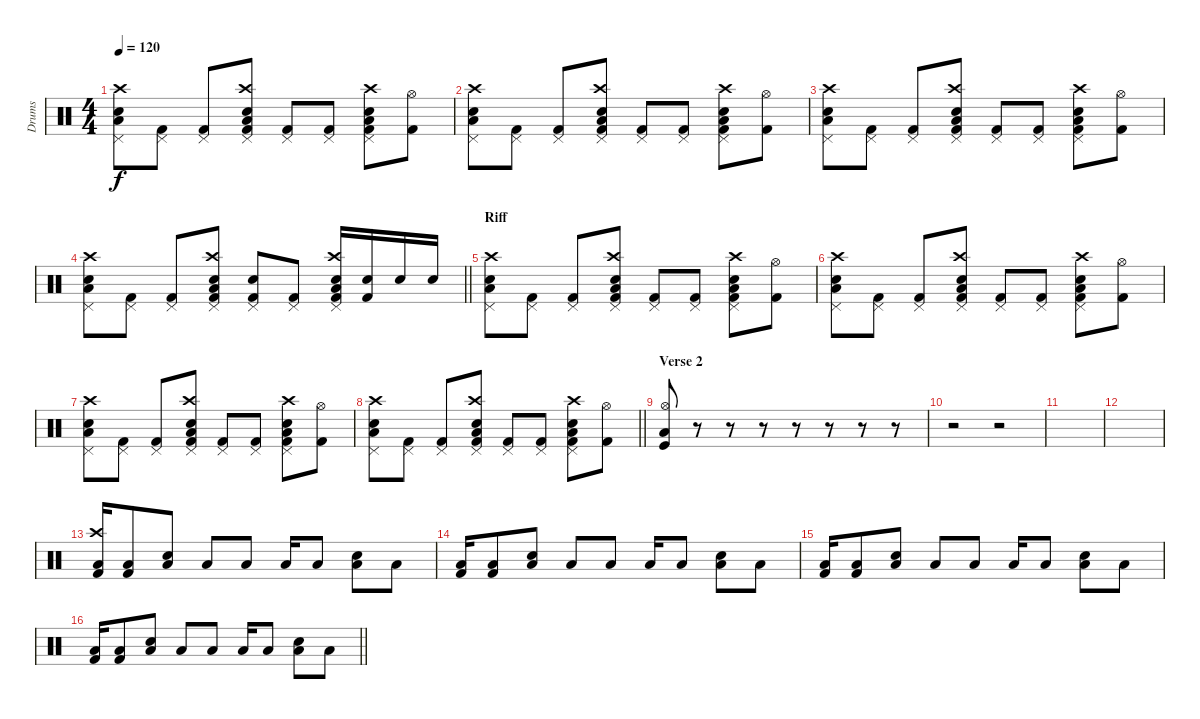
\track ("Drums" "Drums") {instrument percussion}
\staff {score}
\articulation defaults
\ts (4 4)
\tempo 120
\clef neutral
\ks c
("Electric Snare (hit)" "Low Tom (hit)" "Pedal Hi-Hat (hit)" "Crash high (hit)").8{dy f} ("Kick (hit) 2" "Pedal Hi-Hat (hit)").8 ("Kick (hit) 2" "Pedal Hi-Hat (hit)").8 ("Kick (hit) 2" "Electric Snare (hit)" "Low Tom (hit)" "Pedal Hi-Hat (hit)" "Crash high (hit)").8 ("Kick (hit) 2" "Pedal Hi-Hat (hit)").8 ("Kick (hit) 2" "Pedal Hi-Hat (hit)").8 ("Kick (hit) 2" "Electric Snare (hit)" "Low Tom (hit)" "Pedal Hi-Hat (hit)" "Crash high (hit)").8 ("Kick (hit) 2" "Hi-Hat (open)").8 |
("Electric Snare (hit)" "Low Tom (hit)" "Pedal Hi-Hat (hit)" "Crash high (hit)").8 ("Kick (hit) 2" "Pedal Hi-Hat (hit)").8 ("Kick (hit) 2" "Pedal Hi-Hat (hit)").8 ("Kick (hit) 2" "Electric Snare (hit)" "Low Tom (hit)" "Pedal Hi-Hat (hit)" "Crash high (hit)").8 ("Kick (hit) 2" "Pedal Hi-Hat (hit)").8 ("Kick (hit) 2" "Pedal Hi-Hat (hit)").8 ("Kick (hit) 2" "Electric Snare (hit)" "Low Tom (hit)" "Pedal Hi-Hat (hit)" "Crash high (hit)").8 ("Kick (hit) 2" "Hi-Hat (open)").8 |
("Electric Snare (hit)" "Low Tom (hit)" "Pedal Hi-Hat (hit)" "Crash high (hit)").8 ("Kick (hit) 2" "Pedal Hi-Hat (hit)").8 ("Kick (hit) 2" "Pedal Hi-Hat (hit)").8 ("Kick (hit) 2" "Electric Snare (hit)" "Low Tom (hit)" "Pedal Hi-Hat (hit)" "Crash high (hit)").8 ("Kick (hit) 2" "Pedal Hi-Hat (hit)").8 ("Kick (hit) 2" "Pedal Hi-Hat (hit)").8 ("Kick (hit) 2" "Electric Snare (hit)" "Low Tom (hit)" "Pedal Hi-Hat (hit)" "Crash high (hit)").8 ("Kick (hit) 2" "Hi-Hat (open)").8 |
\barLineRight lightlight
("Electric Snare (hit)" "Low Tom (hit)" "Pedal Hi-Hat (hit)" "Crash high (hit)").8 ("Kick (hit) 2" "Pedal Hi-Hat (hit)").8 ("Kick (hit) 2" "Pedal Hi-Hat (hit)").8 ("Kick (hit) 2" "Electric Snare (hit)" "Low Tom (hit)" "Pedal Hi-Hat (hit)" "Crash high (hit)").8 ("Kick (hit) 2" "Pedal Hi-Hat (hit)" "Electric Snare (hit)").8 ("Kick (hit) 2" "Pedal Hi-Hat (hit)").8 ("Kick (hit) 2" "Electric Snare (hit)" "Low Tom (hit)" "Pedal Hi-Hat (hit)" "Crash high (hit)").16 ("Kick (hit) 2" "Electric Snare (hit)").16 "Electric Snare (hit)".16 "Electric Snare (hit)".16 |
\section ("" "Riff")
("Electric Snare (hit)" "Low Tom (hit)" "Pedal Hi-Hat (hit)" "Crash high (hit)").8 ("Kick (hit) 2" "Pedal Hi-Hat (hit)").8 ("Kick (hit) 2" "Pedal Hi-Hat (hit)").8 ("Kick (hit) 2" "Electric Snare (hit)" "Low Tom (hit)" "Pedal Hi-Hat (hit)" "Crash high (hit)").8 ("Kick (hit) 2" "Pedal Hi-Hat (hit)").8 ("Kick (hit) 2" "Pedal Hi-Hat (hit)").8 ("Kick (hit) 2" "Electric Snare (hit)" "Low Tom (hit)" "Pedal Hi-Hat (hit)" "Crash high (hit)").8 ("Kick (hit) 2" "Hi-Hat (open)").8 |
("Electric Snare (hit)" "Low Tom (hit)" "Pedal Hi-Hat (hit)" "Crash high (hit)").8 ("Kick (hit) 2" "Pedal Hi-Hat (hit)").8 ("Kick (hit) 2" "Pedal Hi-Hat (hit)").8 ("Kick (hit) 2" "Electric Snare (hit)" "Low Tom (hit)" "Pedal Hi-Hat (hit)" "Crash high (hit)").8 ("Kick (hit) 2" "Pedal Hi-Hat (hit)").8 ("Kick (hit) 2" "Pedal Hi-Hat (hit)").8 ("Kick (hit) 2" "Electric Snare (hit)" "Low Tom (hit)" "Pedal Hi-Hat (hit)" "Crash high (hit)").8 ("Kick (hit) 2" "Hi-Hat (open)").8 |
("Electric Snare (hit)" "Low Tom (hit)" "Pedal Hi-Hat (hit)" "Crash high (hit)").8 ("Kick (hit) 2" "Pedal Hi-Hat (hit)").8 ("Kick (hit) 2" "Pedal Hi-Hat (hit)").8 ("Kick (hit) 2" "Electric Snare (hit)" "Low Tom (hit)" "Pedal Hi-Hat (hit)" "Crash high (hit)").8 ("Kick (hit) 2" "Pedal Hi-Hat (hit)").8 ("Kick (hit) 2" "Pedal Hi-Hat (hit)").8 ("Kick (hit) 2" "Electric Snare (hit)" "Low Tom (hit)" "Pedal Hi-Hat (hit)" "Crash high (hit)").8 ("Kick (hit) 2" "Hi-Hat (open)").8 |
\barLineRight lightlight
("Electric Snare (hit)" "Low Tom (hit)" "Pedal Hi-Hat (hit)" "Crash high (hit)").8 ("Kick (hit) 2" "Pedal Hi-Hat (hit)").8 ("Kick (hit) 2" "Pedal Hi-Hat (hit)").8 ("Kick (hit) 2" "Electric Snare (hit)" "Low Tom (hit)" "Pedal Hi-Hat (hit)" "Crash high (hit)").8 ("Kick (hit) 2" "Pedal Hi-Hat (hit)").8 ("Kick (hit) 2" "Pedal Hi-Hat (hit)").8 ("Kick (hit) 2" "Electric Snare (hit)" "Low Tom (hit)" "Pedal Hi-Hat (hit)" "Crash high (hit)").8 ("Kick (hit) 2" "Hi-Hat (open)").8 |
\section ("" "Verse 2")
("Hi-Hat (open)" "Kick (hit)" "Low Tom (hit)").8 r.8 r.8 r.8 r.8 r.8 r.8 r.8 |
r.2 r.2 |
|
|
("Crash high (hit)" "Kick (hit) 2" "Low Tom (hit)").16 ("Kick (hit) 2" "Low Tom (hit)").8 ("Electric Snare (hit)" "Low Tom (hit)").8 "Low Tom (hit)".8 "Low Tom (hit)".8 "Low Tom (hit)".16 "Low Tom (hit)".8 ("Electric Snare (hit)" "Low Tom (hit)").8 "Low Tom (hit)".8 |
("Kick (hit) 2" "Low Tom (hit)").16 ("Kick (hit) 2" "Low Tom (hit)").8 ("Electric Snare (hit)" "Low Tom (hit)").8 "Low Tom (hit)".8 "Low Tom (hit)".8 "Low Tom (hit)".16 "Low Tom (hit)".8 ("Electric Snare (hit)" "Low Tom (hit)").8 "Low Tom (hit)".8 |
("Kick (hit) 2" "Low Tom (hit)").16 ("Kick (hit) 2" "Low Tom (hit)").8 ("Electric Snare (hit)" "Low Tom (hit)").8 "Low Tom (hit)".8 "Low Tom (hit)".8 "Low Tom (hit)".16 "Low Tom (hit)".8 ("Electric Snare (hit)" "Low Tom (hit)").8 "Low Tom (hit)".8 |
\barLineRight lightlight
("Kick (hit) 2" "Low Tom (hit)").16 ("Kick (hit) 2" "Low Tom (hit)").8 ("Electric Snare (hit)" "Low Tom (hit)").8 "Low Tom (hit)".8 "Low Tom (hit)".8 "Low Tom (hit)".16 "Low Tom (hit)".8 ("Electric Snare (hit)" "Low Tom (hit)").8 "Low Tom (hit)".8
